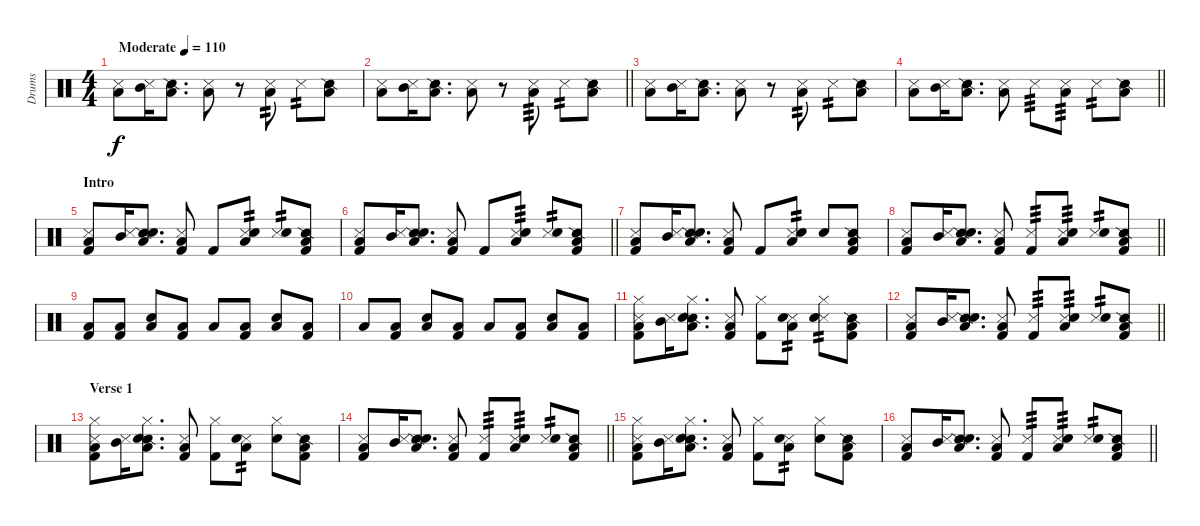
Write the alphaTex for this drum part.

\track ("Drums" "Drums") {instrument percussion}
\staff {score}
\articulation defaults
\ts (4 4)
\tempo (110 "Moderate")
\clef neutral
\ks c
("Snare (side stick) 3" "Low Tom (hit)").8{dy f} ("Snare (side stick) 3" "Mid Tom (hit)").16 ("Snare (side stick) 2" "Low Tom (hit)").8{d} ("Snare (side stick) 3" "Low Tom (hit)").8 r.8 ("Snare (side stick) 3" "Low Tom (hit)").8{tp 2} "Snare (side stick) 3".8{tp 2} ("Snare (side stick) 2" "Low Tom (hit)").8 |
\barLineRight lightlight
("Snare (side stick) 3" "Low Tom (hit)").8 ("Snare (side stick) 3" "Mid Tom (hit)").16 ("Snare (side stick) 2" "Low Tom (hit)").8{d} ("Snare (side stick) 3" "Low Tom (hit)").8 r.8 ("Snare (side stick) 3" "Low Tom (hit)").8{tp 3} "Snare (side stick) 3".8{tp 2} ("Snare (side stick) 2" "Low Tom (hit)").8 |
("Snare (side stick) 3" "Low Tom (hit)").8 ("Snare (side stick) 3" "Mid Tom (hit)").16 ("Snare (side stick) 2" "Low Tom (hit)").8{d} ("Snare (side stick) 3" "Low Tom (hit)").8 r.8 ("Snare (side stick) 3" "Low Tom (hit)").8{tp 2} "Snare (side stick) 3".8{tp 2} ("Snare (side stick) 2" "Low Tom (hit)").8 |
\barLineRight lightlight
("Snare (side stick) 3" "Low Tom (hit)").8 ("Snare (side stick) 3" "Mid Tom (hit)").16 ("Snare (side stick) 2" "Low Tom (hit)").8{d} ("Snare (side stick) 3" "Low Tom (hit)").8 "Snare (side stick) 3".8{tp 3} ("Snare (side stick) 3" "Low Tom (hit)").8{tp 3} "Snare (side stick) 3".8{tp 2} ("Snare (side stick) 2" "Low Tom (hit)").8 |
\section ("" "Intro")
("Snare (side stick) 3" "Low Tom (hit)" "Kick (hit) 2").8 ("Snare (side stick) 3" "Mid Tom (hit)").16 ("Snare (side stick) 2" "Low Tom (hit)" "Snare (hit) 2").8{d} ("Snare (side stick) 3" "Low Tom (hit)" "Kick (hit) 2").8 "Kick (hit) 2".8 ("Snare (side stick) 3" "Low Tom (hit)" "Snare (hit) 2").8{tp 2} ("Snare (side stick) 3" "Snare (hit) 2").8{tp 2} ("Snare (side stick) 2" "Low Tom (hit)" "Kick (hit) 2").8 |
\barLineRight lightlight
("Snare (side stick) 3" "Low Tom (hit)" "Kick (hit) 2").8 ("Snare (side stick) 3" "Mid Tom (hit)").16 ("Snare (side stick) 2" "Low Tom (hit)" "Snare (hit) 2").8{d} ("Snare (side stick) 3" "Low Tom (hit)" "Kick (hit) 2").8 "Kick (hit) 2".8 ("Snare (side stick) 3" "Low Tom (hit)" "Snare (hit) 2").8{tp 3} ("Snare (side stick) 3" "Snare (hit) 2").8{tp 2} ("Snare (side stick) 2" "Low Tom (hit)" "Kick (hit) 2").8 |
("Snare (side stick) 3" "Low Tom (hit)" "Kick (hit) 2").8 ("Snare (side stick) 3" "Mid Tom (hit)").16 ("Snare (side stick) 2" "Low Tom (hit)" "Snare (hit) 2").8{d} ("Snare (side stick) 3" "Low Tom (hit)" "Kick (hit) 2").8 "Kick (hit) 2".8 ("Snare (side stick) 3" "Low Tom (hit)" "Snare (hit) 2").8{tp 2} "Snare (hit) 2".8 ("Snare (side stick) 2" "Low Tom (hit)" "Kick (hit) 2").8 |
\barLineRight lightlight
("Snare (side stick) 3" "Low Tom (hit)" "Kick (hit) 2").8 ("Snare (side stick) 3" "Mid Tom (hit)").16 ("Snare (side stick) 2" "Low Tom (hit)" "Snare (hit) 2").8{d} ("Snare (side stick) 3" "Low Tom (hit)" "Kick (hit) 2").8 ("Snare (side stick) 3" "Kick (hit) 2").8{tp 3} ("Snare (side stick) 3" "Low Tom (hit)" "Snare (hit) 2").8{tp 3} ("Snare (side stick) 3" "Snare (hit) 2").8{tp 2} ("Snare (side stick) 2" "Low Tom (hit)" "Kick (hit) 2").8 |
("Low Floor Tom (hit)" "Kick (hit) 2").8 ("Low Floor Tom (hit)" "Kick (hit) 2").8 ("Low Floor Tom (hit)" "Snare (hit) 2").8 ("Low Floor Tom (hit)" "Kick (hit) 2").8 "Low Floor Tom (hit)".8 ("Low Floor Tom (hit)" "Kick (hit) 2").8 ("Low Floor Tom (hit)" "Snare (hit) 2").8 ("Low Floor Tom (hit)" "Kick (hit) 2").8 |
"Low Floor Tom (hit)".8 ("Low Floor Tom (hit)" "Kick (hit) 2").8 ("Low Floor Tom (hit)" "Snare (hit) 2").8 ("Low Floor Tom (hit)" "Kick (hit) 2").8 "Low Floor Tom (hit)".8 ("Low Floor Tom (hit)" "Kick (hit) 2").8 ("Low Floor Tom (hit)" "Snare (hit) 2").8 ("Low Floor Tom (hit)" "Kick (hit) 2").8 |
("Hi-Hat (closed)" "Snare (side stick) 3" "Low Tom (hit)" "Kick (hit) 2").8 ("Snare (side stick) 3" "Mid Tom (hit)").16 ("Hi-Hat (closed)" "Snare (side stick) 2" "Low Tom (hit)" "Snare (hit) 2").8{d} ("Snare (side stick) 3" "Low Tom (hit)" "Kick (hit) 2").8 ("Hi-Hat (closed)" "Kick (hit) 2").8 ("Snare (side stick) 3" "Low Tom (hit)" "Snare (hit) 2").8{tp 2} ("Hi-Hat (closed)" "Snare (side stick) 3" "Snare (hit) 2").8{tp 2} ("Snare (side stick) 2" "Low Tom (hit)" "Kick (hit) 2").8 |
\barLineRight lightlight
("Snare (side stick) 3" "Low Tom (hit)" "Kick (hit) 2").8 ("Snare (side stick) 3" "Mid Tom (hit)").16 ("Snare (side stick) 2" "Low Tom (hit)" "Snare (hit) 2").8{d} ("Snare (side stick) 3" "Low Tom (hit)" "Kick (hit) 2").8 ("Snare (side stick) 3" "Kick (hit) 2").8{tp 3} ("Snare (side stick) 3" "Low Tom (hit)" "Snare (hit) 2").8{tp 3} ("Snare (side stick) 3" "Snare (hit) 2").8{tp 2} ("Snare (side stick) 2" "Low Tom (hit)" "Kick (hit) 2").8 |
\section ("" "Verse 1")
("Hi-Hat (closed)" "Snare (side stick) 3" "Low Tom (hit)" "Kick (hit) 2").8 ("Snare (side stick) 3" "Mid Tom (hit)").16 ("Hi-Hat (closed)" "Snare (side stick) 2" "Low Tom (hit)" "Snare (hit) 2").8{d} ("Snare (side stick) 3" "Low Tom (hit)" "Kick (hit) 2").8 ("Hi-Hat (closed)" "Kick (hit) 2").8 ("Snare (side stick) 3" "Low Tom (hit)" "Snare (hit) 2").8{tp 2} ("Hi-Hat (closed)" "Snare (hit) 2").8 ("Snare (side stick) 2" "Low Tom (hit)" "Kick (hit) 2").8 |
\barLineRight lightlight
("Snare (side stick) 3" "Low Tom (hit)" "Kick (hit) 2").8 ("Snare (side stick) 3" "Mid Tom (hit)").16 ("Snare (side stick) 2" "Low Tom (hit)" "Snare (hit) 2").8{d} ("Snare (side stick) 3" "Low Tom (hit)" "Kick (hit) 2").8 ("Snare (side stick) 3" "Kick (hit) 2").8{tp 3} ("Snare (side stick) 3" "Low Tom (hit)" "Snare (hit) 2").8{tp 3} ("Snare (side stick) 3" "Snare (hit) 2").8{tp 2} ("Snare (side stick) 2" "Low Tom (hit)" "Kick (hit) 2").8 |
("Hi-Hat (closed)" "Snare (side stick) 3" "Low Tom (hit)" "Kick (hit) 2").8 ("Snare (side stick) 3" "Mid Tom (hit)").16 ("Hi-Hat (closed)" "Snare (side stick) 2" "Low Tom (hit)" "Snare (hit) 2").8{d} ("Snare (side stick) 3" "Low Tom (hit)" "Kick (hit) 2").8 ("Hi-Hat (closed)" "Kick (hit) 2").8 ("Snare (side stick) 3" "Low Tom (hit)" "Snare (hit) 2").8{tp 2} ("Hi-Hat (closed)" "Snare (hit) 2").8 ("Snare (side stick) 2" "Low Tom (hit)" "Kick (hit) 2").8 |
\barLineRight lightlight
("Snare (side stick) 3" "Low Tom (hit)" "Kick (hit) 2").8 ("Snare (side stick) 3" "Mid Tom (hit)").16 ("Snare (side stick) 2" "Low Tom (hit)" "Snare (hit) 2").8{d} ("Snare (side stick) 3" "Low Tom (hit)" "Kick (hit) 2").8 ("Snare (side stick) 3" "Kick (hit) 2").8{tp 3} ("Snare (side stick) 3" "Low Tom (hit)" "Snare (hit) 2").8{tp 3} ("Snare (side stick) 3" "Snare (hit) 2").8{tp 2} ("Snare (side stick) 2" "Low Tom (hit)" "Kick (hit) 2").8
